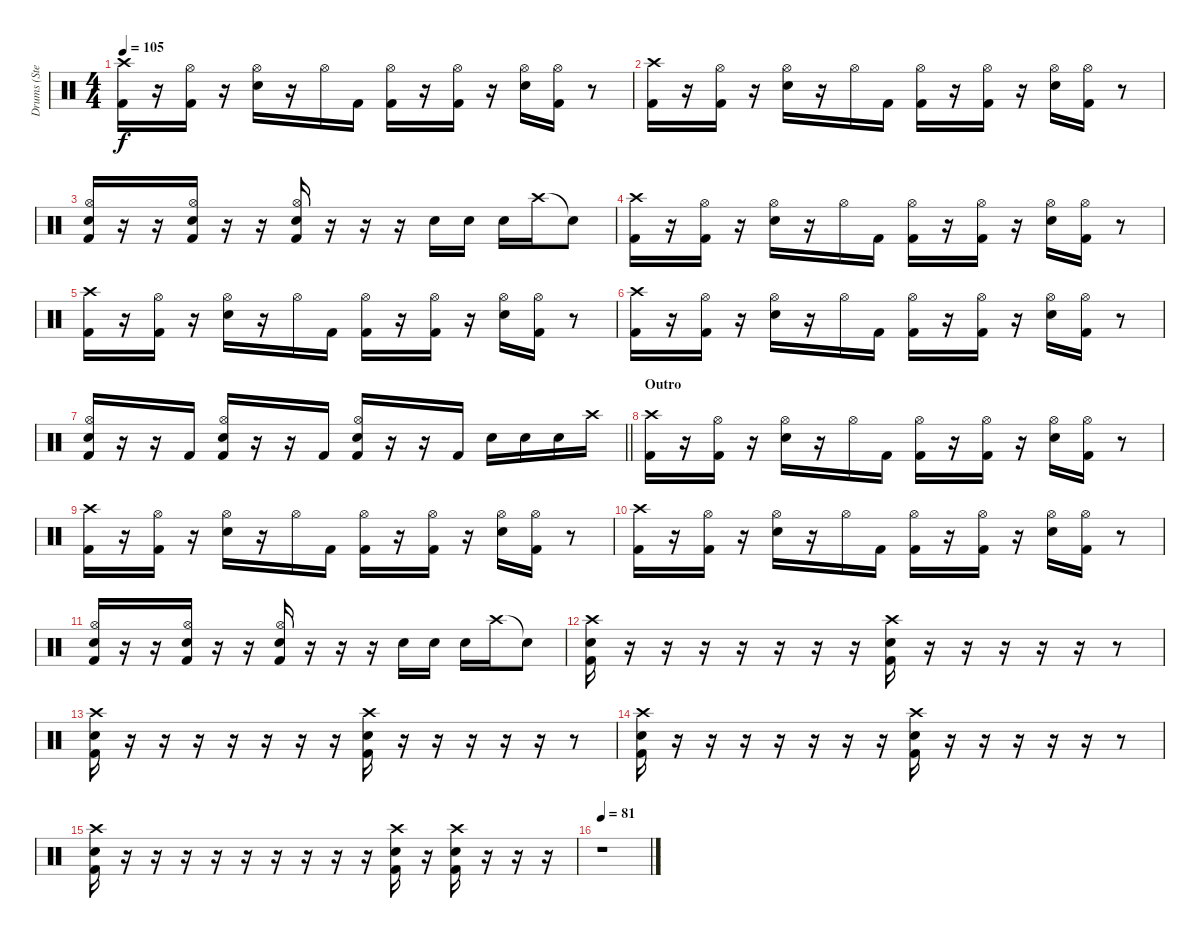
\track ("Drums (Steven)" "Drums (Ste") {instrument percussion}
\staff {score}
\articulation defaults
\ts (4 4)
\tempo 105
\clef neutral
\ks c
("Crash high (hit)" "Kick (hit) 2").16{dy f} r.16 ("Hi-Hat (open)" "Kick (hit) 2").16 r.16 ("Hi-Hat (open)" "Snare (hit) 2").16 r.16 "Hi-Hat (open)".16 "Kick (hit) 2".16 ("Kick (hit) 2" "Hi-Hat (open)").16 r.16 ("Kick (hit) 2" "Hi-Hat (open)").16 r.16 ("Hi-Hat (open)" "Snare (hit) 2").16 ("Kick (hit) 2" "Hi-Hat (open)").16 r.8 |
("Crash high (hit)" "Kick (hit) 2").16 r.16 ("Hi-Hat (open)" "Kick (hit) 2").16 r.16 ("Hi-Hat (open)" "Snare (hit) 2").16 r.16 "Hi-Hat (open)".16 "Kick (hit) 2".16 ("Kick (hit) 2" "Hi-Hat (open)").16 r.16 ("Kick (hit) 2" "Hi-Hat (open)").16 r.16 ("Hi-Hat (open)" "Snare (hit) 2").16 ("Kick (hit) 2" "Hi-Hat (open)").16 r.8 |
("Kick (hit) 2" "Snare (hit) 2" "Hi-Hat (open)").16 r.16 r.16 ("Kick (hit) 2" "Snare (hit) 2" "Hi-Hat (open)").16 r.16 r.16 ("Kick (hit) 2" "Snare (hit) 2" "Hi-Hat (open)").16 r.16 r.16 r.16 "Snare (hit) 2".16 "Snare (hit) 2".16 "Snare (hit) 2".16 "Crash high (hit)".16 "Snare (hit)"{t}.8 |
("Crash high (hit)" "Kick (hit) 2").16 r.16 ("Hi-Hat (open)" "Kick (hit) 2").16 r.16 ("Hi-Hat (open)" "Snare (hit) 2").16 r.16 "Hi-Hat (open)".16 "Kick (hit) 2".16 ("Kick (hit) 2" "Hi-Hat (open)").16 r.16 ("Kick (hit) 2" "Hi-Hat (open)").16 r.16 ("Hi-Hat (open)" "Snare (hit) 2").16 ("Kick (hit) 2" "Hi-Hat (open)").16 r.8 |
("Crash high (hit)" "Kick (hit) 2").16 r.16 ("Hi-Hat (open)" "Kick (hit) 2").16 r.16 ("Hi-Hat (open)" "Snare (hit) 2").16 r.16 "Hi-Hat (open)".16 "Kick (hit) 2".16 ("Kick (hit) 2" "Hi-Hat (open)").16 r.16 ("Kick (hit) 2" "Hi-Hat (open)").16 r.16 ("Hi-Hat (open)" "Snare (hit) 2").16 ("Kick (hit) 2" "Hi-Hat (open)").16 r.8 |
("Crash high (hit)" "Kick (hit) 2").16 r.16 ("Hi-Hat (open)" "Kick (hit) 2").16 r.16 ("Hi-Hat (open)" "Snare (hit) 2").16 r.16 "Hi-Hat (open)".16 "Kick (hit) 2".16 ("Kick (hit) 2" "Hi-Hat (open)").16 r.16 ("Kick (hit) 2" "Hi-Hat (open)").16 r.16 ("Hi-Hat (open)" "Snare (hit) 2").16 ("Kick (hit) 2" "Hi-Hat (open)").16 r.8 |
\barLineRight lightlight
("Kick (hit) 2" "Snare (hit) 2" "Hi-Hat (open)").16 r.16 r.16 "Kick (hit) 2".16 ("Kick (hit) 2" "Snare (hit) 2" "Hi-Hat (open)").16 r.16 r.16 "Kick (hit) 2".16 ("Kick (hit) 2" "Snare (hit) 2" "Hi-Hat (open)").16 r.16 r.16 "Kick (hit) 2".16 "Snare (hit) 2".16 "Snare (hit) 2".16 "Snare (hit) 2".16 "Crash high (hit)".16 |
\section ("" "Outro")
("Crash high (hit)" "Kick (hit) 2").16 r.16 ("Hi-Hat (open)" "Kick (hit) 2").16 r.16 ("Hi-Hat (open)" "Snare (hit) 2").16 r.16 "Hi-Hat (open)".16 "Kick (hit) 2".16 ("Kick (hit) 2" "Hi-Hat (open)").16 r.16 ("Kick (hit) 2" "Hi-Hat (open)").16 r.16 ("Hi-Hat (open)" "Snare (hit) 2").16 ("Kick (hit) 2" "Hi-Hat (open)").16 r.8 |
("Crash high (hit)" "Kick (hit) 2").16 r.16 ("Hi-Hat (open)" "Kick (hit) 2").16 r.16 ("Hi-Hat (open)" "Snare (hit) 2").16 r.16 "Hi-Hat (open)".16 "Kick (hit) 2".16 ("Kick (hit) 2" "Hi-Hat (open)").16 r.16 ("Kick (hit) 2" "Hi-Hat (open)").16 r.16 ("Hi-Hat (open)" "Snare (hit) 2").16 ("Kick (hit) 2" "Hi-Hat (open)").16 r.8 |
("Crash high (hit)" "Kick (hit) 2").16 r.16 ("Hi-Hat (open)" "Kick (hit) 2").16 r.16 ("Hi-Hat (open)" "Snare (hit) 2").16 r.16 "Hi-Hat (open)".16 "Kick (hit) 2".16 ("Kick (hit) 2" "Hi-Hat (open)").16 r.16 ("Kick (hit) 2" "Hi-Hat (open)").16 r.16 ("Hi-Hat (open)" "Snare (hit) 2").16 ("Kick (hit) 2" "Hi-Hat (open)").16 r.8 |
("Kick (hit) 2" "Snare (hit) 2" "Hi-Hat (open)").16 r.16 r.16 ("Kick (hit) 2" "Snare (hit) 2" "Hi-Hat (open)").16 r.16 r.16 ("Kick (hit) 2" "Snare (hit) 2" "Hi-Hat (open)").16 r.16 r.16 r.16 "Snare (hit) 2".16 "Snare (hit) 2".16 "Snare (hit) 2".16 "Crash high (hit)".16 "Snare (hit)"{t}.8 |
("Crash high (hit)" "Snare (hit) 2" "Kick (hit) 2").16 r.16 r.16 r.16 r.16 r.16 r.16 r.16 ("Crash high (hit)" "Snare (hit) 2" "Kick (hit) 2").16 r.16 r.16 r.16 r.16 r.16 r.8 |
("Crash high (hit)" "Snare (hit) 2" "Kick (hit) 2").16 r.16 r.16 r.16 r.16 r.16 r.16 r.16 ("Crash high (hit)" "Snare (hit) 2" "Kick (hit) 2").16 r.16 r.16 r.16 r.16 r.16 r.8 |
("Crash high (hit)" "Snare (hit) 2" "Kick (hit) 2").16 r.16 r.16 r.16 r.16 r.16 r.16 r.16 ("Crash high (hit)" "Snare (hit) 2" "Kick (hit) 2").16 r.16 r.16 r.16 r.16 r.16 r.8 |
("Crash high (hit)" "Snare (hit) 2" "Kick (hit) 2").16 r.16 r.16 r.16 r.16 r.16 r.16 r.16 r.16 r.16 ("Crash high (hit)" "Snare (hit) 2" "Kick (hit) 2").16 r.16 ("Crash high (hit)" "Snare (hit) 2" "Kick (hit) 2").16 r.16 r.16 r.16 |
\tempo 81
r.1
